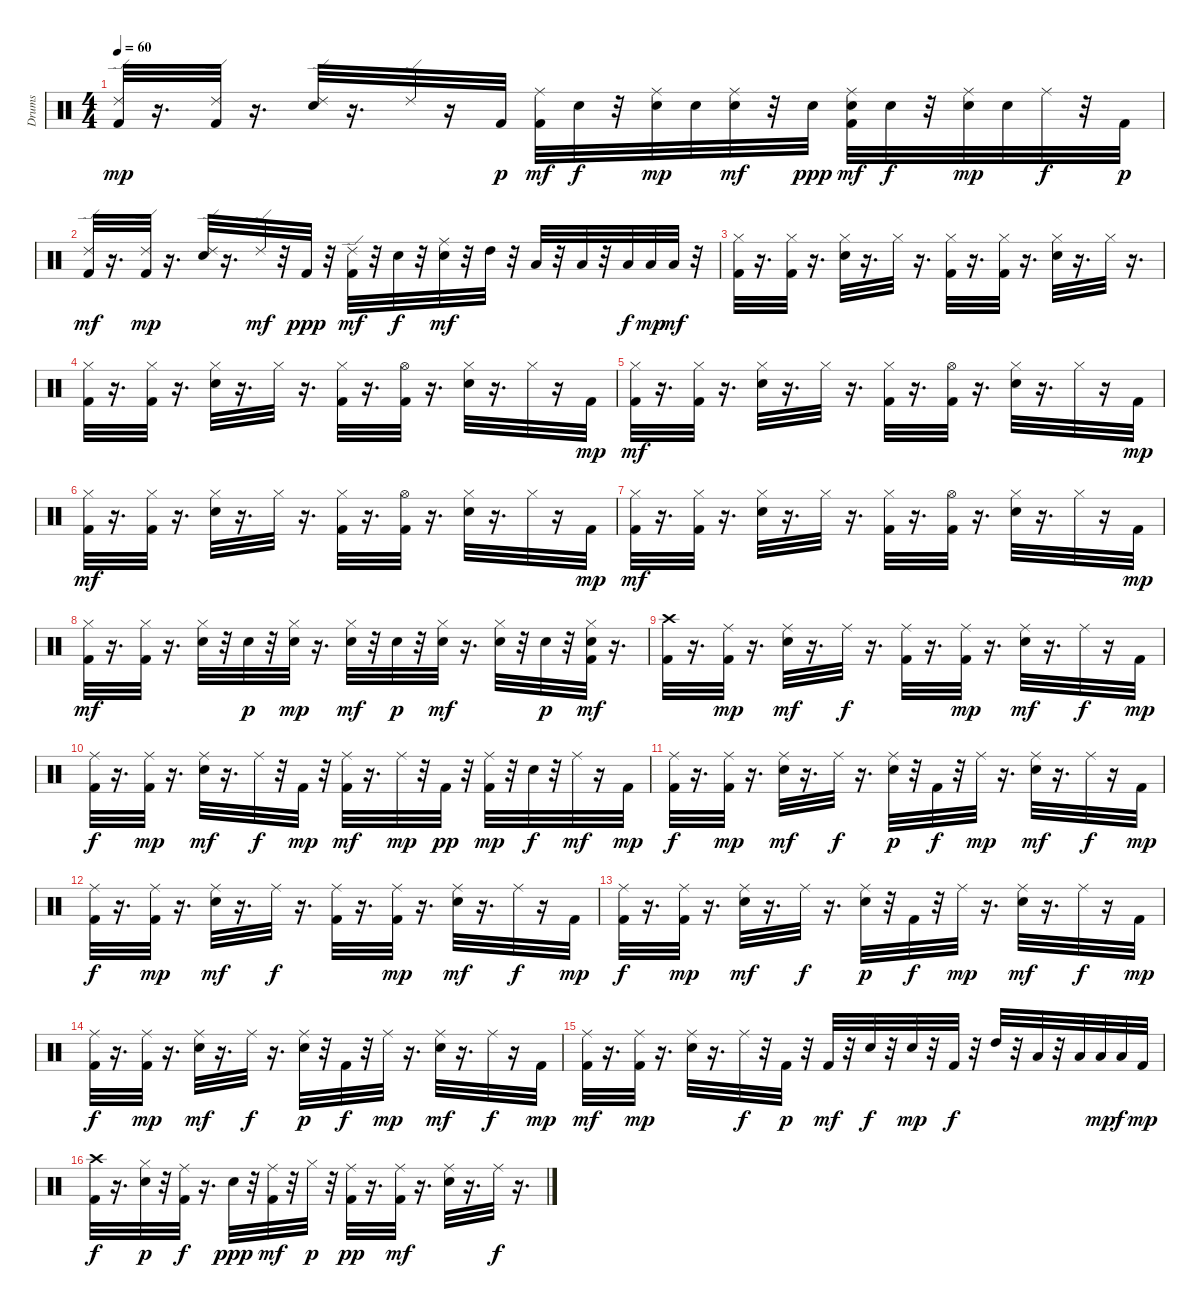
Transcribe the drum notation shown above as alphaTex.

\track ("Drums" "Drums") {instrument percussion}
\staff {score}
\articulation defaults
\ts (4 4)
\tempo 60
\clef neutral
\ks c
("Kick (hit) 2" "Ride (edge) 2").32{dy mp} r.16{d} ("Kick (hit) 2" "Ride (edge) 2").32 r.16{d} ("Snare (hit) 2" "Ride (edge) 2").32 r.16{d} "Ride (edge) 2".32 r.16 "Kick (hit) 2".32{dy p} ("Kick (hit) 2" "Ride (middle)").32{dy mf} "Snare (hit) 2".32{dy f} r.32 ("Snare (hit) 2" "Ride (middle)").32{dy mp} "Snare (hit) 2".32 ("Snare (hit) 2" "Ride (middle)").32{dy mf} r.32 "Snare (hit) 2".32{dy ppp} ("Kick (hit) 2" "Snare (hit) 2" "Ride (middle)").32{dy mf} "Snare (hit) 2".32{dy f} r.32 ("Snare (hit) 2" "Ride (middle)").32{dy mp} "Snare (hit) 2".32 "Ride (middle)".32{dy f} r.32 "Kick (hit) 2".32{dy p} |
("Kick (hit) 2" "Ride (edge) 2").32{dy mf} r.16{d} ("Kick (hit) 2" "Ride (edge) 2").32{dy mp} r.16{d} ("Snare (hit) 2" "Ride (edge) 2").32 r.16{d} "Ride (edge) 2".32{dy mf} r.32 "Kick (hit) 2".32{dy ppp} r.32 ("Kick (hit) 2" "Ride (edge) 2").32{dy mf} r.32 "Snare (hit) 2".32{dy f} r.32 ("Snare (hit) 2" "Ride (middle)").32{dy mf} r.32 "High Tom (hit)".32 r.32 "Low Tom (hit)".32 r.32 "Low Tom (hit)".32 r.32 "Low Floor Tom (hit)".32{dy f} "Low Floor Tom (hit)".32{dy mp} "Low Floor Tom (hit)".32{dy mf} r.32 |
("Kick (hit) 2" "Hi-Hat (closed)").32 r.16{d} ("Kick (hit) 2" "Hi-Hat (closed)").32 r.16{d} ("Snare (hit) 2" "Hi-Hat (closed)").32 r.16{d} "Hi-Hat (closed)".32 r.16{d} ("Kick (hit) 2" "Hi-Hat (closed)").32 r.16{d} ("Kick (hit) 2" "Hi-Hat (closed)").32 r.16{d} ("Snare (hit) 2" "Hi-Hat (closed)").32 r.16{d} "Hi-Hat (closed)".32 r.16{d} |
("Kick (hit) 2" "Hi-Hat (closed)").32 r.16{d} ("Kick (hit) 2" "Hi-Hat (closed)").32 r.16{d} ("Snare (hit) 2" "Hi-Hat (closed)").32 r.16{d} "Hi-Hat (closed)".32 r.16{d} ("Kick (hit) 2" "Hi-Hat (closed)").32 r.16{d} ("Kick (hit) 2" "Hi-Hat (open)").32 r.16{d} ("Snare (hit) 2" "Hi-Hat (closed)").32 r.16{d} "Hi-Hat (closed)".32 r.16 "Kick (hit) 2".32{dy mp} |
("Kick (hit) 2" "Hi-Hat (closed)").32{dy mf} r.16{d} ("Kick (hit) 2" "Hi-Hat (closed)").32 r.16{d} ("Snare (hit) 2" "Hi-Hat (closed)").32 r.16{d} "Hi-Hat (closed)".32 r.16{d} ("Kick (hit) 2" "Hi-Hat (closed)").32 r.16{d} ("Kick (hit) 2" "Hi-Hat (open)").32 r.16{d} ("Snare (hit) 2" "Hi-Hat (closed)").32 r.16{d} "Hi-Hat (closed)".32 r.16 "Kick (hit) 2".32{dy mp} |
("Kick (hit) 2" "Hi-Hat (closed)").32{dy mf} r.16{d} ("Kick (hit) 2" "Hi-Hat (closed)").32 r.16{d} ("Snare (hit) 2" "Hi-Hat (closed)").32 r.16{d} "Hi-Hat (closed)".32 r.16{d} ("Kick (hit) 2" "Hi-Hat (closed)").32 r.16{d} ("Kick (hit) 2" "Hi-Hat (open)").32 r.16{d} ("Snare (hit) 2" "Hi-Hat (closed)").32 r.16{d} "Hi-Hat (closed)".32 r.16 "Kick (hit) 2".32{dy mp} |
("Kick (hit) 2" "Hi-Hat (closed)").32{dy mf} r.16{d} ("Kick (hit) 2" "Hi-Hat (closed)").32 r.16{d} ("Snare (hit) 2" "Hi-Hat (closed)").32 r.16{d} "Hi-Hat (closed)".32 r.16{d} ("Kick (hit) 2" "Hi-Hat (closed)").32 r.16{d} ("Kick (hit) 2" "Hi-Hat (open)").32 r.16{d} ("Snare (hit) 2" "Hi-Hat (closed)").32 r.16{d} "Hi-Hat (closed)".32 r.16 "Kick (hit) 2".32{dy mp} |
("Kick (hit) 2" "Hi-Hat (closed)").32{dy mf} r.16{d} ("Hi-Hat (closed)" "Kick (hit) 2").32 r.16{d} ("Snare (hit) 2" "Hi-Hat (closed)").32 r.32 "Snare (hit) 2".32{dy p} r.32 ("Hi-Hat (closed)" "Snare (hit) 2").32{dy mp} r.16{d} ("Snare (hit) 2" "Hi-Hat (closed)").32{dy mf} r.32 "Snare (hit) 2".32{dy p} r.32 ("Snare (hit) 2" "Hi-Hat (closed)").32{dy mf} r.16{d} ("Snare (hit) 2" "Hi-Hat (closed)").32 r.32 "Snare (hit) 2".32{dy p} r.32 ("Snare (hit) 2" "Hi-Hat (closed)" "Kick (hit) 2").32{dy mf} r.16{d} |
("Kick (hit) 2" "Crash high (hit)").32 r.16{d} ("Kick (hit) 2" "Ride (middle)").32{dy mp} r.16{d} ("Ride (middle)" "Snare (hit) 2").32{dy mf} r.16{d} "Ride (middle)".32{dy f} r.16{d} ("Kick (hit) 2" "Ride (middle)").32 r.16{d} ("Kick (hit) 2" "Ride (middle)").32{dy mp} r.16{d} ("Ride (middle)" "Snare (hit) 2").32{dy mf} r.16{d} "Ride (middle)".32{dy f} r.16 "Kick (hit) 2".32{dy mp} |
("Kick (hit) 2" "Ride (middle)").32{dy f} r.16{d} ("Kick (hit) 2" "Ride (middle)").32{dy mp} r.16{d} ("Ride (middle)" "Snare (hit) 2").32{dy mf} r.16{d} "Ride (middle)".32{dy f} r.32 "Kick (hit) 2".32{dy mp} r.32 ("Kick (hit) 2" "Ride (middle)").32{dy mf} r.16{d} "Ride (middle)".32{dy mp} r.32 "Kick (hit) 2".32{dy pp} r.32 ("Ride (middle)" "Kick (hit) 2").32{dy mp} r.32 "Snare (hit) 2".32{dy f} r.32 "Ride (middle)".32{dy mf} r.16 "Kick (hit) 2".32{dy mp} |
("Kick (hit) 2" "Ride (middle)").32{dy f} r.16{d} ("Kick (hit) 2" "Ride (middle)").32{dy mp} r.16{d} ("Ride (middle)" "Snare (hit) 2").32{dy mf} r.16{d} "Ride (middle)".32{dy f} r.16{d} ("Ride (middle)" "Snare (hit) 2").32{dy p} r.32 "Kick (hit) 2".32{dy f} r.32 "Ride (middle)".32{dy mp} r.16{d} ("Ride (middle)" "Snare (hit) 2").32{dy mf} r.16{d} "Ride (middle)".32{dy f} r.16 "Kick (hit) 2".32{dy mp} |
("Kick (hit) 2" "Ride (middle)").32{dy f} r.16{d} ("Kick (hit) 2" "Ride (middle)").32{dy mp} r.16{d} ("Ride (middle)" "Snare (hit) 2").32{dy mf} r.16{d} "Ride (middle)".32{dy f} r.16{d} ("Kick (hit) 2" "Ride (middle)").32 r.16{d} ("Kick (hit) 2" "Ride (middle)").32{dy mp} r.16{d} ("Ride (middle)" "Snare (hit) 2").32{dy mf} r.16{d} "Ride (middle)".32{dy f} r.16 "Kick (hit) 2".32{dy mp} |
("Kick (hit) 2" "Ride (middle)").32{dy f} r.16{d} ("Kick (hit) 2" "Ride (middle)").32{dy mp} r.16{d} ("Ride (middle)" "Snare (hit) 2").32{dy mf} r.16{d} "Ride (middle)".32{dy f} r.16{d} ("Ride (middle)" "Snare (hit) 2").32{dy p} r.32 "Kick (hit) 2".32{dy f} r.32 "Ride (middle)".32{dy mp} r.16{d} ("Ride (middle)" "Snare (hit) 2").32{dy mf} r.16{d} "Ride (middle)".32{dy f} r.16 "Kick (hit) 2".32{dy mp} |
("Kick (hit) 2" "Ride (middle)").32{dy f} r.16{d} ("Kick (hit) 2" "Ride (middle)").32{dy mp} r.16{d} ("Ride (middle)" "Snare (hit) 2").32{dy mf} r.16{d} "Ride (middle)".32{dy f} r.16{d} ("Ride (middle)" "Snare (hit) 2").32{dy p} r.32 "Kick (hit) 2".32{dy f} r.32 "Ride (middle)".32{dy mp} r.16{d} ("Ride (middle)" "Snare (hit) 2").32{dy mf} r.16{d} "Ride (middle)".32{dy f} r.16 "Kick (hit) 2".32{dy mp} |
("Kick (hit) 2" "Ride (middle)").32{dy mf} r.16{d} ("Kick (hit) 2" "Ride (middle)").32{dy mp} r.16{d} ("Ride (middle)" "Snare (hit) 2").32 r.16{d} "Ride (middle)".32{dy f} r.32 "Kick (hit) 2".32{dy p} r.32 "Kick (hit) 2".32{dy mf} r.32 "Snare (hit) 2".32{dy f} r.32 "Snare (hit) 2".32{dy mp} r.32 "Kick (hit) 2".32{dy f} r.32 "High Tom (hit)".32 r.32 "Low Tom (hit)".32 r.32 "Low Floor Tom (hit)".32 "Low Floor Tom (hit)".32{dy mp} "Low Floor Tom (hit)".32{dy f} "Kick (hit) 2".32{dy mp} |
("Kick (hit) 2" "Crash high (hit)").32{dy f} r.16{d} ("Snare (hit) 2" "Hi-Hat (closed)").32{dy p} r.32 ("Kick (hit) 2" "Ride (middle)").32{dy f} r.16{d} "Snare (hit) 2".32{dy ppp} r.32 ("Ride (middle)" "Kick (hit) 2").32{dy mf} r.32 "Hi-Hat (closed)".32{dy p} r.32 ("Ride (middle)" "Kick (hit) 2").32{dy pp} r.16{d} ("Kick (hit) 2" "Ride (middle)").32{dy mf} r.16{d} ("Snare (hit) 2" "Ride (middle)").32 r.16{d} "Ride (middle)".32{dy f} r.16{d}
